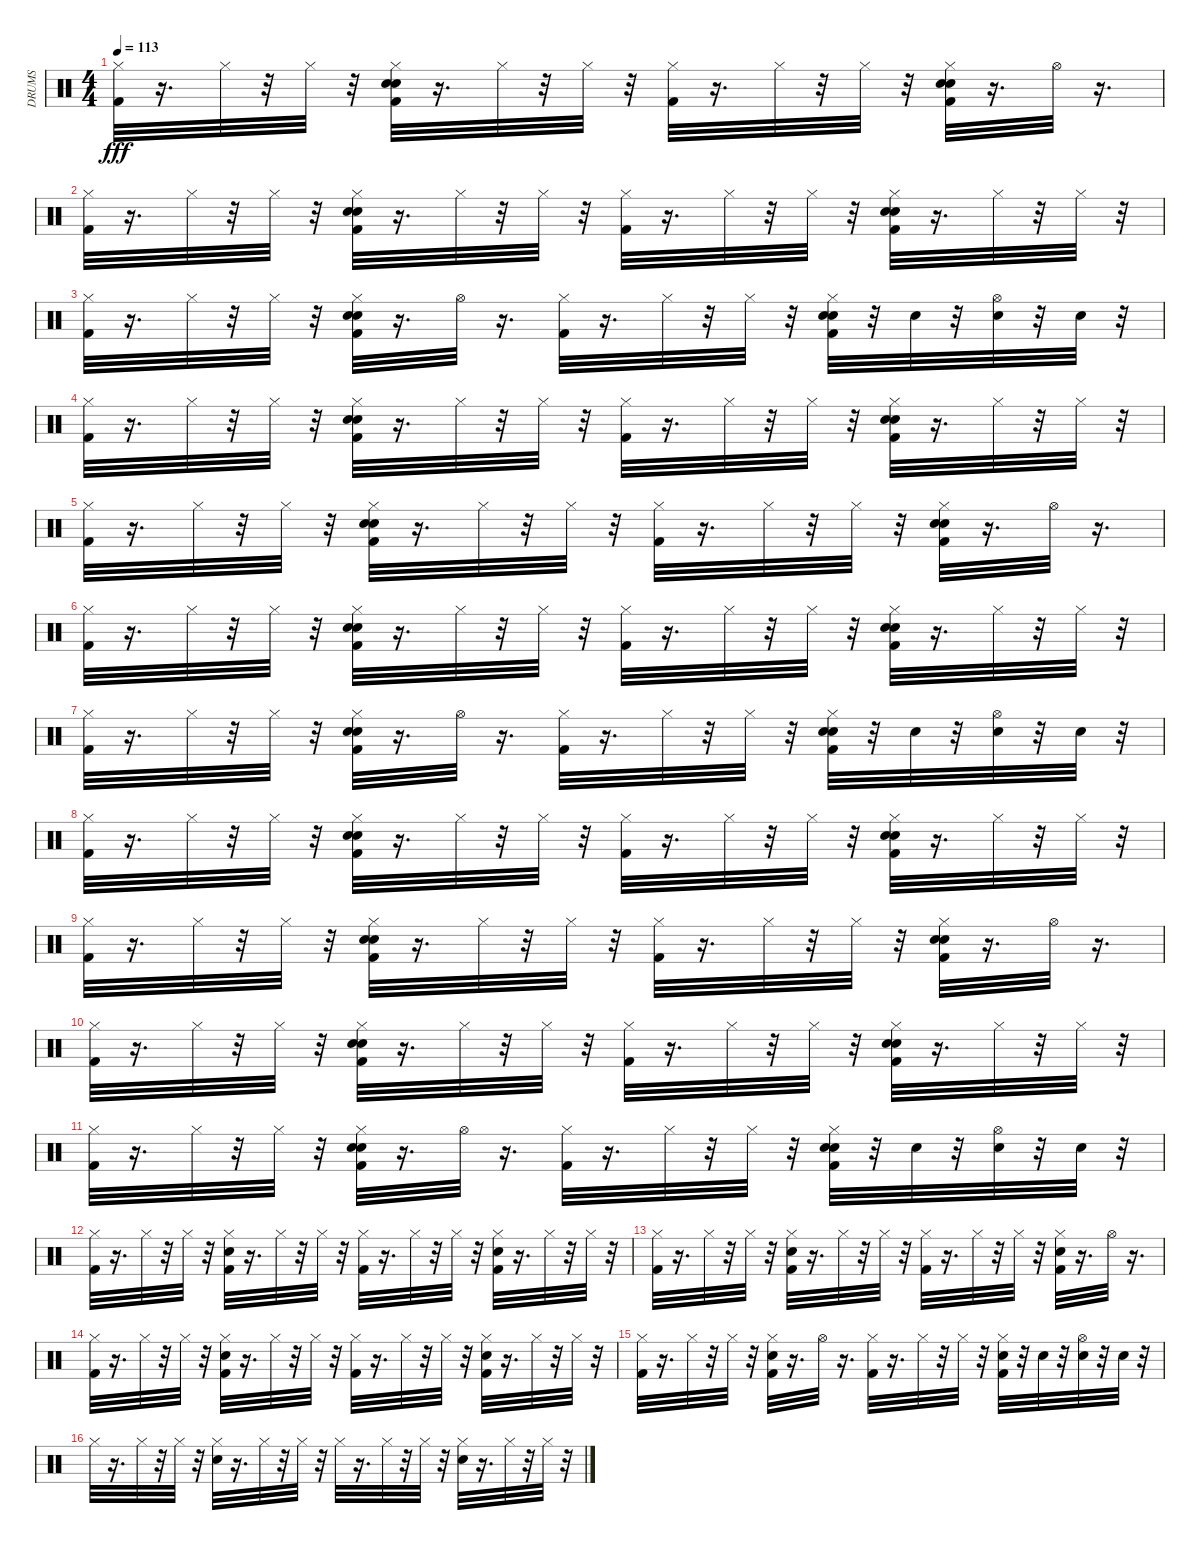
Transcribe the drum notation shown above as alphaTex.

\track ("DRUMS" "DRUMS") {instrument percussion}
\staff {score}
\articulation defaults
\ts (4 4)
\tempo 113
\clef neutral
\ks c
("Hi-Hat (closed)" "Kick (hit) 2").32{dy fff} r.16{d} "Hi-Hat (closed)".32 r.32 "Hi-Hat (closed)".32 r.32 ("Hi-Hat (closed)" "Snare (hit) 2" "Kick (hit) 2" "Hand Clap (hit)").32 r.16{d} "Hi-Hat (closed)".32 r.32 "Hi-Hat (closed)".32 r.32 ("Hi-Hat (closed)" "Kick (hit) 2").32 r.16{d} "Hi-Hat (closed)".32 r.32 "Hi-Hat (closed)".32 r.32 ("Hi-Hat (closed)" "Snare (hit) 2" "Kick (hit) 2" "Hand Clap (hit)").32 r.16{d} "Hi-Hat (open)".32 r.16{d} |
("Hi-Hat (closed)" "Kick (hit) 2").32 r.16{d} "Hi-Hat (closed)".32 r.32 "Hi-Hat (closed)".32 r.32 ("Hi-Hat (closed)" "Snare (hit) 2" "Kick (hit) 2" "Hand Clap (hit)").32 r.16{d} "Hi-Hat (closed)".32 r.32 "Hi-Hat (closed)".32 r.32 ("Hi-Hat (closed)" "Kick (hit) 2").32 r.16{d} "Hi-Hat (closed)".32 r.32 "Hi-Hat (closed)".32 r.32 ("Hi-Hat (closed)" "Snare (hit) 2" "Kick (hit) 2" "Hand Clap (hit)").32 r.16{d} "Hi-Hat (closed)".32 r.32 "Hi-Hat (closed)".32 r.32 |
("Hi-Hat (closed)" "Kick (hit) 2").32 r.16{d} "Hi-Hat (closed)".32 r.32 "Hi-Hat (closed)".32 r.32 ("Hi-Hat (closed)" "Snare (hit) 2" "Kick (hit) 2" "Hand Clap (hit)").32 r.16{d} "Hi-Hat (open)".32 r.16{d} ("Hi-Hat (closed)" "Kick (hit) 2").32 r.16{d} "Hi-Hat (closed)".32 r.32 "Hi-Hat (closed)".32 r.32 ("Hi-Hat (closed)" "Snare (hit) 2" "Kick (hit) 2" "Hand Clap (hit)").32 r.32 "Hand Clap (hit)".32 r.32 ("Hi-Hat (open)" "Hand Clap (hit)").32 r.32 "Hand Clap (hit)".32 r.32 |
("Hi-Hat (closed)" "Kick (hit) 2").32 r.16{d} "Hi-Hat (closed)".32 r.32 "Hi-Hat (closed)".32 r.32 ("Hi-Hat (closed)" "Snare (hit) 2" "Kick (hit) 2" "Hand Clap (hit)").32 r.16{d} "Hi-Hat (closed)".32 r.32 "Hi-Hat (closed)".32 r.32 ("Hi-Hat (closed)" "Kick (hit) 2").32 r.16{d} "Hi-Hat (closed)".32 r.32 "Hi-Hat (closed)".32 r.32 ("Hi-Hat (closed)" "Snare (hit) 2" "Kick (hit) 2" "Hand Clap (hit)").32 r.16{d} "Hi-Hat (closed)".32 r.32 "Hi-Hat (closed)".32 r.32 |
("Hi-Hat (closed)" "Kick (hit) 2").32 r.16{d} "Hi-Hat (closed)".32 r.32 "Hi-Hat (closed)".32 r.32 ("Hi-Hat (closed)" "Snare (hit) 2" "Kick (hit) 2" "Hand Clap (hit)").32 r.16{d} "Hi-Hat (closed)".32 r.32 "Hi-Hat (closed)".32 r.32 ("Hi-Hat (closed)" "Kick (hit) 2").32 r.16{d} "Hi-Hat (closed)".32 r.32 "Hi-Hat (closed)".32 r.32 ("Hi-Hat (closed)" "Snare (hit) 2" "Kick (hit) 2" "Hand Clap (hit)").32 r.16{d} "Hi-Hat (open)".32 r.16{d} |
("Hi-Hat (closed)" "Kick (hit) 2").32 r.16{d} "Hi-Hat (closed)".32 r.32 "Hi-Hat (closed)".32 r.32 ("Hi-Hat (closed)" "Snare (hit) 2" "Kick (hit) 2" "Hand Clap (hit)").32 r.16{d} "Hi-Hat (closed)".32 r.32 "Hi-Hat (closed)".32 r.32 ("Hi-Hat (closed)" "Kick (hit) 2").32 r.16{d} "Hi-Hat (closed)".32 r.32 "Hi-Hat (closed)".32 r.32 ("Hi-Hat (closed)" "Snare (hit) 2" "Kick (hit) 2" "Hand Clap (hit)").32 r.16{d} "Hi-Hat (closed)".32 r.32 "Hi-Hat (closed)".32 r.32 |
("Hi-Hat (closed)" "Kick (hit) 2").32 r.16{d} "Hi-Hat (closed)".32 r.32 "Hi-Hat (closed)".32 r.32 ("Hi-Hat (closed)" "Snare (hit) 2" "Kick (hit) 2" "Hand Clap (hit)").32 r.16{d} "Hi-Hat (open)".32 r.16{d} ("Hi-Hat (closed)" "Kick (hit) 2").32 r.16{d} "Hi-Hat (closed)".32 r.32 "Hi-Hat (closed)".32 r.32 ("Hi-Hat (closed)" "Snare (hit) 2" "Kick (hit) 2" "Hand Clap (hit)").32 r.32 "Hand Clap (hit)".32 r.32 ("Hi-Hat (open)" "Hand Clap (hit)").32 r.32 "Hand Clap (hit)".32 r.32 |
("Hi-Hat (closed)" "Kick (hit) 2").32 r.16{d} "Hi-Hat (closed)".32 r.32 "Hi-Hat (closed)".32 r.32 ("Hi-Hat (closed)" "Snare (hit) 2" "Kick (hit) 2" "Hand Clap (hit)").32 r.16{d} "Hi-Hat (closed)".32 r.32 "Hi-Hat (closed)".32 r.32 ("Hi-Hat (closed)" "Kick (hit) 2").32 r.16{d} "Hi-Hat (closed)".32 r.32 "Hi-Hat (closed)".32 r.32 ("Hi-Hat (closed)" "Snare (hit) 2" "Kick (hit) 2" "Hand Clap (hit)").32 r.16{d} "Hi-Hat (closed)".32 r.32 "Hi-Hat (closed)".32 r.32 |
("Hi-Hat (closed)" "Kick (hit) 2").32 r.16{d} "Hi-Hat (closed)".32 r.32 "Hi-Hat (closed)".32 r.32 ("Hi-Hat (closed)" "Snare (hit) 2" "Kick (hit) 2" "Hand Clap (hit)").32 r.16{d} "Hi-Hat (closed)".32 r.32 "Hi-Hat (closed)".32 r.32 ("Hi-Hat (closed)" "Kick (hit) 2").32 r.16{d} "Hi-Hat (closed)".32 r.32 "Hi-Hat (closed)".32 r.32 ("Hi-Hat (closed)" "Snare (hit) 2" "Kick (hit) 2" "Hand Clap (hit)").32 r.16{d} "Hi-Hat (open)".32 r.16{d} |
("Hi-Hat (closed)" "Kick (hit) 2").32 r.16{d} "Hi-Hat (closed)".32 r.32 "Hi-Hat (closed)".32 r.32 ("Hi-Hat (closed)" "Snare (hit) 2" "Kick (hit) 2" "Hand Clap (hit)").32 r.16{d} "Hi-Hat (closed)".32 r.32 "Hi-Hat (closed)".32 r.32 ("Hi-Hat (closed)" "Kick (hit) 2").32 r.16{d} "Hi-Hat (closed)".32 r.32 "Hi-Hat (closed)".32 r.32 ("Hi-Hat (closed)" "Snare (hit) 2" "Kick (hit) 2" "Hand Clap (hit)").32 r.16{d} "Hi-Hat (closed)".32 r.32 "Hi-Hat (closed)".32 r.32 |
("Hi-Hat (closed)" "Kick (hit) 2").32 r.16{d} "Hi-Hat (closed)".32 r.32 "Hi-Hat (closed)".32 r.32 ("Hi-Hat (closed)" "Snare (hit) 2" "Kick (hit) 2" "Hand Clap (hit)").32 r.16{d} "Hi-Hat (open)".32 r.16{d} ("Hi-Hat (closed)" "Kick (hit) 2").32 r.16{d} "Hi-Hat (closed)".32 r.32 "Hi-Hat (closed)".32 r.32 ("Hi-Hat (closed)" "Snare (hit) 2" "Kick (hit) 2" "Hand Clap (hit)").32 r.32 "Hand Clap (hit)".32 r.32 ("Hi-Hat (open)" "Hand Clap (hit)").32 r.32 "Hand Clap (hit)".32 r.32 |
("Hi-Hat (closed)" "Kick (hit) 2").32 r.16{d} "Hi-Hat (closed)".32 r.32 "Hi-Hat (closed)".32 r.32 ("Hi-Hat (closed)" "Kick (hit) 2" "Hand Clap (hit)").32 r.16{d} "Hi-Hat (closed)".32 r.32 "Hi-Hat (closed)".32 r.32 ("Hi-Hat (closed)" "Kick (hit) 2").32 r.16{d} "Hi-Hat (closed)".32 r.32 "Hi-Hat (closed)".32 r.32 ("Hi-Hat (closed)" "Kick (hit) 2" "Hand Clap (hit)").32 r.16{d} "Hi-Hat (closed)".32 r.32 "Hi-Hat (closed)".32 r.32 |
("Hi-Hat (closed)" "Kick (hit) 2").32 r.16{d} "Hi-Hat (closed)".32 r.32 "Hi-Hat (closed)".32 r.32 ("Hi-Hat (closed)" "Kick (hit) 2" "Hand Clap (hit)").32 r.16{d} "Hi-Hat (closed)".32 r.32 "Hi-Hat (closed)".32 r.32 ("Hi-Hat (closed)" "Kick (hit) 2").32 r.16{d} "Hi-Hat (closed)".32 r.32 "Hi-Hat (closed)".32 r.32 ("Hi-Hat (closed)" "Kick (hit) 2" "Hand Clap (hit)").32 r.16{d} "Hi-Hat (open)".32 r.16{d} |
("Hi-Hat (closed)" "Kick (hit) 2").32 r.16{d} "Hi-Hat (closed)".32 r.32 "Hi-Hat (closed)".32 r.32 ("Hi-Hat (closed)" "Kick (hit) 2" "Hand Clap (hit)").32 r.16{d} "Hi-Hat (closed)".32 r.32 "Hi-Hat (closed)".32 r.32 ("Hi-Hat (closed)" "Kick (hit) 2").32 r.16{d} "Hi-Hat (closed)".32 r.32 "Hi-Hat (closed)".32 r.32 ("Hi-Hat (closed)" "Kick (hit) 2" "Hand Clap (hit)").32 r.16{d} "Hi-Hat (closed)".32 r.32 "Hi-Hat (closed)".32 r.32 |
("Hi-Hat (closed)" "Kick (hit) 2").32 r.16{d} "Hi-Hat (closed)".32 r.32 "Hi-Hat (closed)".32 r.32 ("Hi-Hat (closed)" "Kick (hit) 2" "Hand Clap (hit)").32 r.16{d} "Hi-Hat (open)".32 r.16{d} ("Hi-Hat (closed)" "Kick (hit) 2").32 r.16{d} "Hi-Hat (closed)".32 r.32 "Hi-Hat (closed)".32 r.32 ("Hi-Hat (closed)" "Kick (hit) 2" "Hand Clap (hit)").32 r.32 "Hand Clap (hit)".32 r.32 ("Hi-Hat (open)" "Hand Clap (hit)").32 r.32 "Hand Clap (hit)".32 r.32 |
"Hi-Hat (closed)".32 r.16{d} "Hi-Hat (closed)".32 r.32 "Hi-Hat (closed)".32 r.32 ("Hi-Hat (closed)" "Hand Clap (hit)").32 r.16{d} "Hi-Hat (closed)".32 r.32 "Hi-Hat (closed)".32 r.32 "Hi-Hat (closed)".32 r.16{d} "Hi-Hat (closed)".32 r.32 "Hi-Hat (closed)".32 r.32 ("Hi-Hat (closed)" "Hand Clap (hit)").32 r.16{d} "Hi-Hat (closed)".32 r.32 "Hi-Hat (closed)".32 r.32
